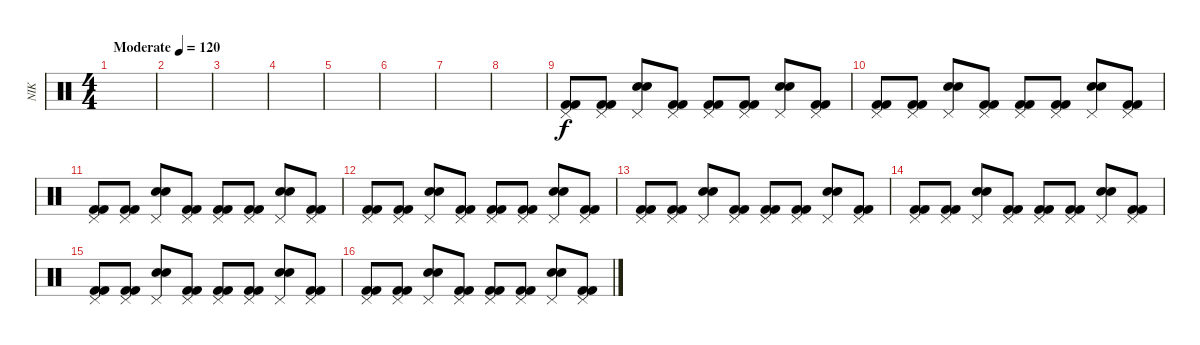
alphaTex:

\track ("NIK" "NIK") {instrument percussion}
\staff {score}
\articulation defaults
\ts (4 4)
\tempo (120 "Moderate")
\tempo 160
\tempo (120 "Moderate")
\clef neutral
\ks c
|
|
|
|
|
|
|
|
("Pedal Hi-Hat (hit)" "Kick (hit) 2" "Kick (hit) 2").8 ("Pedal Hi-Hat (hit)" "Kick (hit) 2" "Kick (hit) 2").8 ("Pedal Hi-Hat (hit)" "Snare (hit) 2" "Snare (hit) 2").8 ("Pedal Hi-Hat (hit)" "Kick (hit) 2" "Kick (hit) 2").8 ("Pedal Hi-Hat (hit)" "Kick (hit) 2" "Kick (hit) 2").8 ("Pedal Hi-Hat (hit)" "Kick (hit) 2" "Kick (hit) 2").8 ("Pedal Hi-Hat (hit)" "Snare (hit) 2" "Snare (hit) 2").8 ("Pedal Hi-Hat (hit)" "Kick (hit) 2" "Kick (hit) 2").8 |
("Pedal Hi-Hat (hit)" "Kick (hit) 2" "Kick (hit) 2").8 ("Pedal Hi-Hat (hit)" "Kick (hit) 2" "Kick (hit) 2").8 ("Pedal Hi-Hat (hit)" "Snare (hit) 2" "Snare (hit) 2").8 ("Pedal Hi-Hat (hit)" "Kick (hit) 2" "Kick (hit) 2").8 ("Pedal Hi-Hat (hit)" "Kick (hit) 2" "Kick (hit) 2").8 ("Pedal Hi-Hat (hit)" "Kick (hit) 2" "Kick (hit) 2").8 ("Pedal Hi-Hat (hit)" "Snare (hit) 2" "Snare (hit) 2").8 ("Pedal Hi-Hat (hit)" "Kick (hit) 2" "Kick (hit) 2").8 |
("Pedal Hi-Hat (hit)" "Kick (hit) 2" "Kick (hit) 2").8 ("Pedal Hi-Hat (hit)" "Kick (hit) 2" "Kick (hit) 2").8 ("Pedal Hi-Hat (hit)" "Snare (hit) 2" "Snare (hit) 2").8 ("Pedal Hi-Hat (hit)" "Kick (hit) 2" "Kick (hit) 2").8 ("Pedal Hi-Hat (hit)" "Kick (hit) 2" "Kick (hit) 2").8 ("Pedal Hi-Hat (hit)" "Kick (hit) 2" "Kick (hit) 2").8 ("Pedal Hi-Hat (hit)" "Snare (hit) 2" "Snare (hit) 2").8 ("Pedal Hi-Hat (hit)" "Kick (hit) 2" "Kick (hit) 2").8 |
("Pedal Hi-Hat (hit)" "Kick (hit) 2" "Kick (hit) 2").8 ("Pedal Hi-Hat (hit)" "Kick (hit) 2" "Kick (hit) 2").8 ("Pedal Hi-Hat (hit)" "Snare (hit) 2" "Snare (hit) 2").8 ("Pedal Hi-Hat (hit)" "Kick (hit) 2" "Kick (hit) 2").8 ("Pedal Hi-Hat (hit)" "Kick (hit) 2" "Kick (hit) 2").8 ("Pedal Hi-Hat (hit)" "Kick (hit) 2" "Kick (hit) 2").8 ("Pedal Hi-Hat (hit)" "Snare (hit) 2" "Snare (hit) 2").8 ("Pedal Hi-Hat (hit)" "Kick (hit) 2" "Kick (hit) 2").8 |
("Pedal Hi-Hat (hit)" "Kick (hit) 2" "Kick (hit) 2").8 ("Pedal Hi-Hat (hit)" "Kick (hit) 2" "Kick (hit) 2").8 ("Pedal Hi-Hat (hit)" "Snare (hit) 2" "Snare (hit) 2").8 ("Pedal Hi-Hat (hit)" "Kick (hit) 2" "Kick (hit) 2").8 ("Pedal Hi-Hat (hit)" "Kick (hit) 2" "Kick (hit) 2").8 ("Pedal Hi-Hat (hit)" "Kick (hit) 2" "Kick (hit) 2").8 ("Pedal Hi-Hat (hit)" "Snare (hit) 2" "Snare (hit) 2").8 ("Pedal Hi-Hat (hit)" "Kick (hit) 2" "Kick (hit) 2").8 |
("Pedal Hi-Hat (hit)" "Kick (hit) 2" "Kick (hit) 2").8 ("Pedal Hi-Hat (hit)" "Kick (hit) 2" "Kick (hit) 2").8 ("Pedal Hi-Hat (hit)" "Snare (hit) 2" "Snare (hit) 2").8 ("Pedal Hi-Hat (hit)" "Kick (hit) 2" "Kick (hit) 2").8 ("Pedal Hi-Hat (hit)" "Kick (hit) 2" "Kick (hit) 2").8 ("Pedal Hi-Hat (hit)" "Kick (hit) 2" "Kick (hit) 2").8 ("Pedal Hi-Hat (hit)" "Snare (hit) 2" "Snare (hit) 2").8 ("Pedal Hi-Hat (hit)" "Kick (hit) 2" "Kick (hit) 2").8 |
("Pedal Hi-Hat (hit)" "Kick (hit) 2" "Kick (hit) 2").8 ("Pedal Hi-Hat (hit)" "Kick (hit) 2" "Kick (hit) 2").8 ("Pedal Hi-Hat (hit)" "Snare (hit) 2" "Snare (hit) 2").8 ("Pedal Hi-Hat (hit)" "Kick (hit) 2" "Kick (hit) 2").8 ("Pedal Hi-Hat (hit)" "Kick (hit) 2" "Kick (hit) 2").8 ("Pedal Hi-Hat (hit)" "Kick (hit) 2" "Kick (hit) 2").8 ("Pedal Hi-Hat (hit)" "Snare (hit) 2" "Snare (hit) 2").8 ("Pedal Hi-Hat (hit)" "Kick (hit) 2" "Kick (hit) 2").8 |
("Pedal Hi-Hat (hit)" "Kick (hit) 2" "Kick (hit) 2").8 ("Pedal Hi-Hat (hit)" "Kick (hit) 2" "Kick (hit) 2").8 ("Pedal Hi-Hat (hit)" "Snare (hit) 2" "Snare (hit) 2").8 ("Pedal Hi-Hat (hit)" "Kick (hit) 2" "Kick (hit) 2").8 ("Pedal Hi-Hat (hit)" "Kick (hit) 2" "Kick (hit) 2").8 ("Pedal Hi-Hat (hit)" "Kick (hit) 2" "Kick (hit) 2").8 ("Pedal Hi-Hat (hit)" "Snare (hit) 2" "Snare (hit) 2").8 ("Pedal Hi-Hat (hit)" "Kick (hit) 2" "Kick (hit) 2").8
